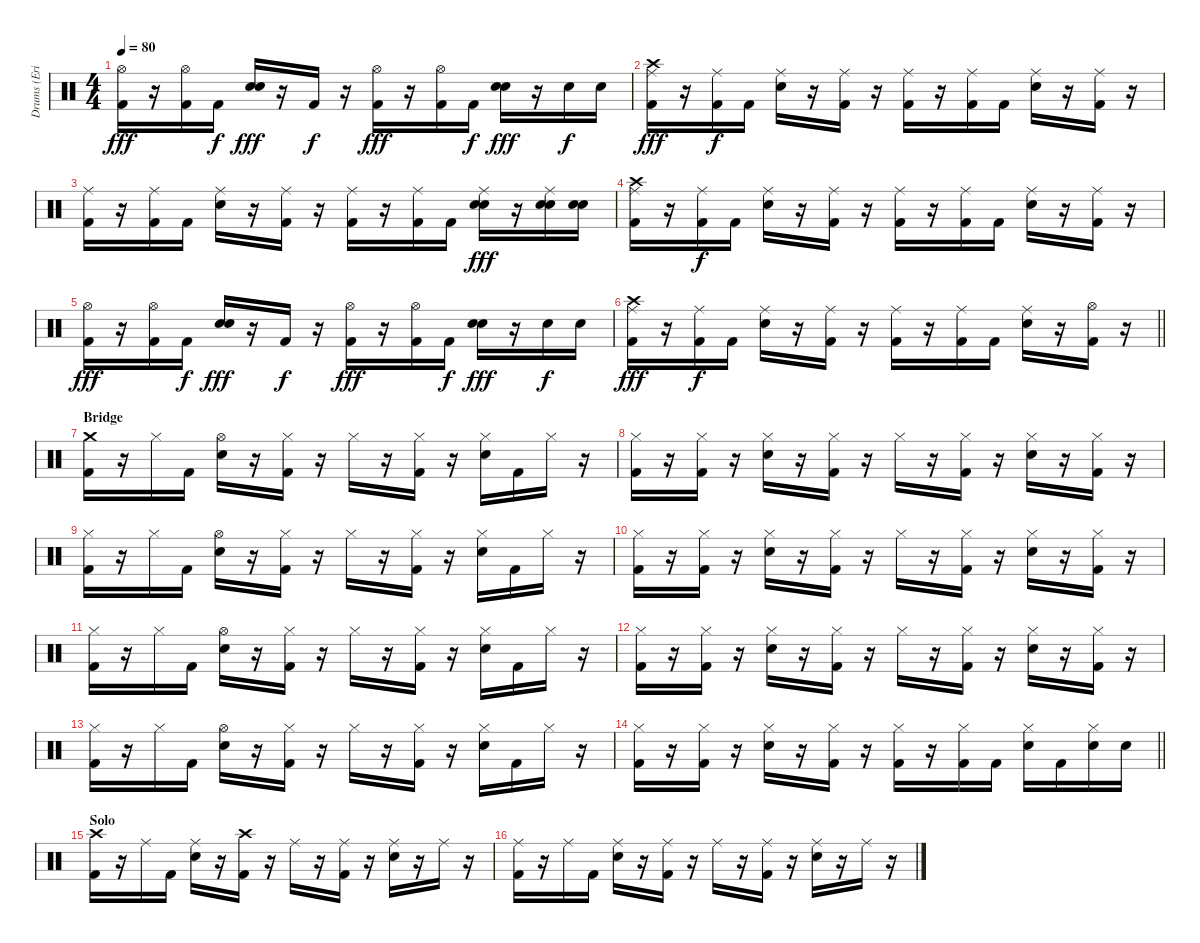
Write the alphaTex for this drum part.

\track ("Drums (Eric Kretz)" "Drums (Eri") {instrument percussion}
\staff {score}
\articulation defaults
\ts (4 4)
\tempo 80
\clef neutral
\ks c
("Hi-Hat (open)" "Kick (hit) 2").16{dy fff} r.16 ("Hi-Hat (open)" "Kick (hit) 2").16 "Kick (hit) 2".16{dy f} ("Snare (hit) 2" "Electric Snare (hit)").16{dy fff} r.16 "Kick (hit) 2".16{dy f} r.16 ("Hi-Hat (open)" "Kick (hit) 2").16{dy fff} r.16 ("Hi-Hat (open)" "Kick (hit) 2").16 "Kick (hit) 2".16{dy f} ("Snare (hit) 2" "Electric Snare (hit)").16{dy fff} r.16 "Electric Snare (hit)".16{dy f} "Electric Snare (hit)".16 |
("Crash high (hit)" "Ride (middle)" "Kick (hit) 2").16{dy fff} r.16 ("Ride (middle)" "Kick (hit) 2").16{dy f} "Kick (hit) 2".16 ("Ride (middle)" "Electric Snare (hit)").16 r.16 ("Ride (middle)" "Kick (hit) 2").16 r.16 ("Ride (middle)" "Kick (hit) 2").16 r.16 ("Ride (middle)" "Kick (hit) 2").16 "Kick (hit) 2".16 ("Ride (middle)" "Electric Snare (hit)").16 r.16 ("Ride (middle)" "Kick (hit) 2").16 r.16 |
("Ride (middle)" "Kick (hit) 2").16 r.16 ("Ride (middle)" "Kick (hit) 2").16 "Kick (hit) 2".16 ("Ride (middle)" "Electric Snare (hit)").16 r.16 ("Ride (middle)" "Kick (hit) 2").16 r.16 ("Ride (middle)" "Kick (hit) 2").16 r.16 ("Ride (middle)" "Kick (hit) 2").16 "Kick (hit) 2".16 ("Ride (middle)" "Snare (hit) 2" "Electric Snare (hit)").16{dy fff} r.16 ("Ride (middle)" "Snare (hit) 2" "Electric Snare (hit)").16 ("Snare (hit) 2" "Electric Snare (hit)").16 |
("Crash high (hit)" "Ride (middle)" "Kick (hit) 2").16 r.16 ("Ride (middle)" "Kick (hit) 2").16{dy f} "Kick (hit) 2".16 ("Ride (middle)" "Electric Snare (hit)").16 r.16 ("Ride (middle)" "Kick (hit) 2").16 r.16 ("Ride (middle)" "Kick (hit) 2").16 r.16 ("Ride (middle)" "Kick (hit) 2").16 "Kick (hit) 2".16 ("Ride (middle)" "Electric Snare (hit)").16 r.16 ("Ride (middle)" "Kick (hit) 2").16 r.16 |
("Hi-Hat (open)" "Kick (hit) 2").16{dy fff} r.16 ("Hi-Hat (open)" "Kick (hit) 2").16 "Kick (hit) 2".16{dy f} ("Snare (hit) 2" "Electric Snare (hit)").16{dy fff} r.16 "Kick (hit) 2".16{dy f} r.16 ("Hi-Hat (open)" "Kick (hit) 2").16{dy fff} r.16 ("Hi-Hat (open)" "Kick (hit) 2").16 "Kick (hit) 2".16{dy f} ("Snare (hit) 2" "Electric Snare (hit)").16{dy fff} r.16 "Electric Snare (hit)".16{dy f} "Electric Snare (hit)".16 |
\barLineRight lightlight
("Crash high (hit)" "Ride (middle)" "Kick (hit) 2").16{dy fff} r.16 ("Ride (middle)" "Kick (hit) 2").16{dy f} "Kick (hit) 2".16 ("Ride (middle)" "Electric Snare (hit)").16 r.16 ("Ride (middle)" "Kick (hit) 2").16 r.16 ("Ride (middle)" "Kick (hit) 2").16 r.16 ("Ride (middle)" "Kick (hit) 2").16 "Kick (hit) 2".16 ("Ride (middle)" "Electric Snare (hit)").16 r.16 ("Hi-Hat (open)" "Kick (hit) 2").16 r.16 |
\section ("" "Bridge")
("Crash medium (hit)" "Kick (hit) 2").16 r.16 "Hi-Hat (closed)".16 "Kick (hit) 2".16 ("Hi-Hat (open)" "Electric Snare (hit)").16 r.16 ("Hi-Hat (closed)" "Kick (hit) 2").16 r.16 "Hi-Hat (closed)".16 r.16 ("Hi-Hat (closed)" "Kick (hit) 2").16 r.16 ("Hi-Hat (closed)" "Electric Snare (hit)").16 "Kick (hit) 2".16 "Hi-Hat (closed)".16 r.16 |
("Hi-Hat (closed)" "Kick (hit) 2").16 r.16 ("Hi-Hat (closed)" "Kick (hit) 2").16 r.16 ("Hi-Hat (closed)" "Electric Snare (hit)").16 r.16 ("Hi-Hat (closed)" "Kick (hit) 2").16 r.16 "Hi-Hat (closed)".16 r.16 ("Hi-Hat (closed)" "Kick (hit) 2").16 r.16 ("Hi-Hat (closed)" "Electric Snare (hit)").16 r.16 ("Hi-Hat (closed)" "Kick (hit) 2").16 r.16 |
("Hi-Hat (closed)" "Kick (hit) 2").16 r.16 "Hi-Hat (closed)".16 "Kick (hit) 2".16 ("Hi-Hat (open)" "Electric Snare (hit)").16 r.16 ("Hi-Hat (closed)" "Kick (hit) 2").16 r.16 "Hi-Hat (closed)".16 r.16 ("Hi-Hat (closed)" "Kick (hit) 2").16 r.16 ("Hi-Hat (closed)" "Electric Snare (hit)").16 "Kick (hit) 2".16 "Hi-Hat (closed)".16 r.16 |
("Hi-Hat (closed)" "Kick (hit) 2").16 r.16 ("Hi-Hat (closed)" "Kick (hit) 2").16 r.16 ("Hi-Hat (closed)" "Electric Snare (hit)").16 r.16 ("Hi-Hat (closed)" "Kick (hit) 2").16 r.16 "Hi-Hat (closed)".16 r.16 ("Hi-Hat (closed)" "Kick (hit) 2").16 r.16 ("Hi-Hat (closed)" "Electric Snare (hit)").16 r.16 ("Hi-Hat (closed)" "Kick (hit) 2").16 r.16 |
("Hi-Hat (closed)" "Kick (hit) 2").16 r.16 "Hi-Hat (closed)".16 "Kick (hit) 2".16 ("Hi-Hat (open)" "Electric Snare (hit)").16 r.16 ("Hi-Hat (closed)" "Kick (hit) 2").16 r.16 "Hi-Hat (closed)".16 r.16 ("Hi-Hat (closed)" "Kick (hit) 2").16 r.16 ("Hi-Hat (closed)" "Electric Snare (hit)").16 "Kick (hit) 2".16 "Hi-Hat (closed)".16 r.16 |
("Hi-Hat (closed)" "Kick (hit) 2").16 r.16 ("Hi-Hat (closed)" "Kick (hit) 2").16 r.16 ("Hi-Hat (closed)" "Electric Snare (hit)").16 r.16 ("Hi-Hat (closed)" "Kick (hit) 2").16 r.16 "Hi-Hat (closed)".16 r.16 ("Hi-Hat (closed)" "Kick (hit) 2").16 r.16 ("Hi-Hat (closed)" "Electric Snare (hit)").16 r.16 ("Hi-Hat (closed)" "Kick (hit) 2").16 r.16 |
("Hi-Hat (closed)" "Kick (hit) 2").16 r.16 "Hi-Hat (closed)".16 "Kick (hit) 2".16 ("Hi-Hat (open)" "Electric Snare (hit)").16 r.16 ("Hi-Hat (closed)" "Kick (hit) 2").16 r.16 "Hi-Hat (closed)".16 r.16 ("Hi-Hat (closed)" "Kick (hit) 2").16 r.16 ("Hi-Hat (closed)" "Electric Snare (hit)").16 "Kick (hit) 2".16 "Hi-Hat (closed)".16 r.16 |
\barLineRight lightlight
("Hi-Hat (closed)" "Kick (hit) 2").16 r.16 ("Hi-Hat (closed)" "Kick (hit) 2").16 r.16 ("Hi-Hat (closed)" "Electric Snare (hit)").16 r.16 ("Hi-Hat (closed)" "Kick (hit) 2").16 r.16 ("Hi-Hat (closed)" "Kick (hit) 2").16 r.16 ("Hi-Hat (closed)" "Kick (hit) 2").16 "Kick (hit) 2".16 ("Hi-Hat (closed)" "Electric Snare (hit)").16 "Kick (hit) 2".16 ("Hi-Hat (closed)" "Electric Snare (hit)").16 "Electric Snare (hit)".16 |
\section ("" "Solo")
("Crash high (hit)" "Kick (hit) 2").16 r.16 "Ride (middle)".16 "Kick (hit) 2".16 ("Ride (middle)" "Electric Snare (hit)").16 r.16 ("Crash high (hit)" "Kick (hit) 2").16 r.16 "Ride (middle)".16 r.16 ("Ride (middle)" "Kick (hit) 2").16 r.16 ("Ride (middle)" "Electric Snare (hit)").16 r.16 "Ride (middle)".16 r.16 |
("Ride (middle)" "Kick (hit) 2").16 r.16 "Ride (middle)".16 "Kick (hit) 2".16 ("Ride (middle)" "Electric Snare (hit)").16 r.16 ("Ride (middle)" "Kick (hit) 2").16 r.16 "Ride (middle)".16 r.16 ("Ride (middle)" "Kick (hit) 2").16 r.16 ("Ride (middle)" "Electric Snare (hit)").16 r.16 "Ride (middle)".16 r.16
